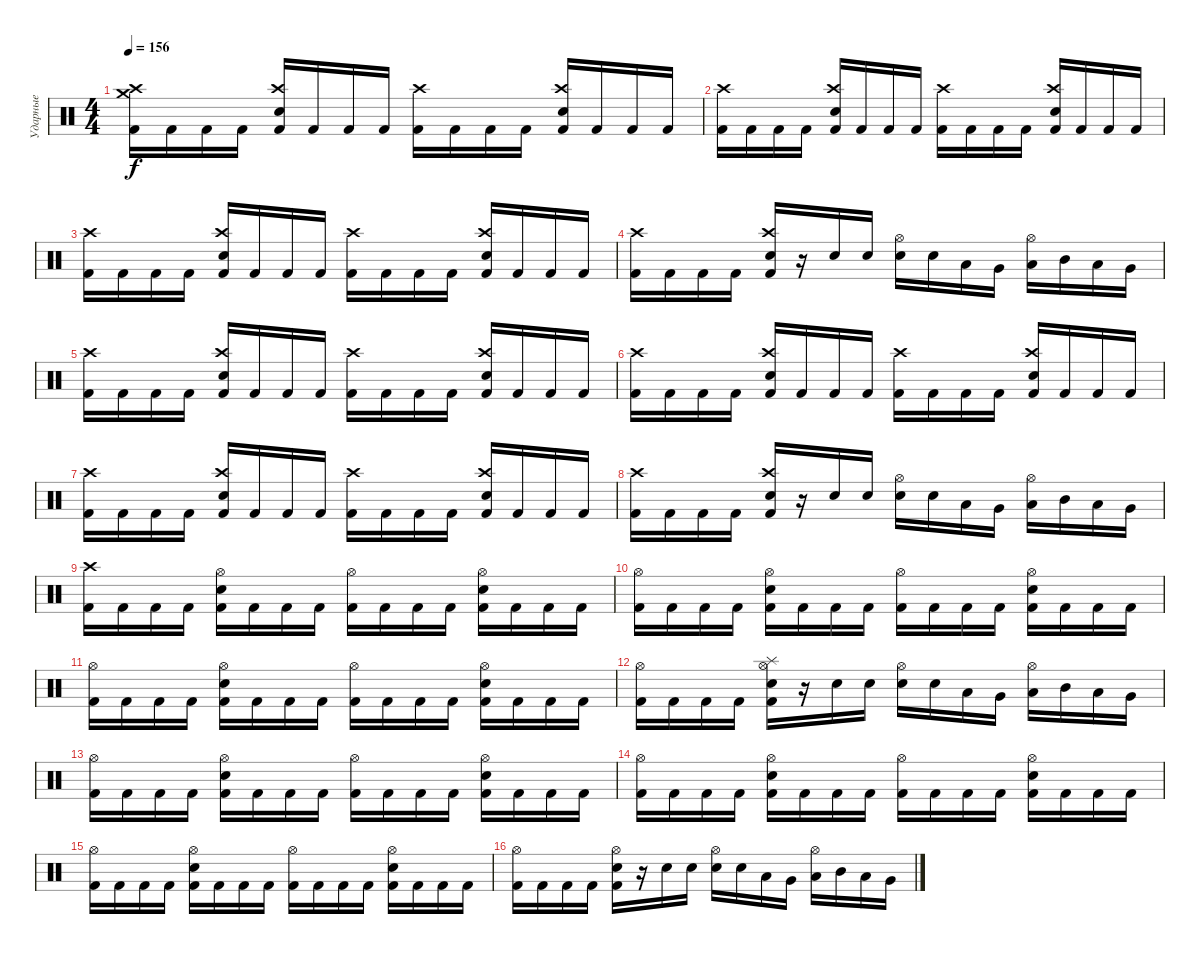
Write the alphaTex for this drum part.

\track ("Ударные" "Ударные") {instrument percussion}
\staff {score}
\articulation defaults
\ts (4 4)
\tempo 156
\clef neutral
\ks c
("Kick (hit) 2" "Crash medium (hit)" "Crash high (hit)").16{dy f} "Kick (hit) 2".16 "Kick (hit) 2".16 "Kick (hit) 2".16 ("Kick (hit) 2" "Electric Snare (hit)" "Crash high (hit)").16 "Kick (hit) 2".16 "Kick (hit) 2".16 "Kick (hit) 2".16 ("Kick (hit) 2" "Crash high (hit)").16 "Kick (hit) 2".16 "Kick (hit) 2".16 "Kick (hit) 2".16 ("Kick (hit) 2" "Snare (hit) 2" "Crash high (hit)").16 "Kick (hit) 2".16 "Kick (hit) 2".16 "Kick (hit) 2".16 |
("Kick (hit) 2" "Crash high (hit)").16 "Kick (hit) 2".16 "Kick (hit) 2".16 "Kick (hit) 2".16 ("Kick (hit) 2" "Electric Snare (hit)" "Crash high (hit)").16 "Kick (hit) 2".16 "Kick (hit) 2".16 "Kick (hit) 2".16 ("Kick (hit) 2" "Crash high (hit)").16 "Kick (hit) 2".16 "Kick (hit) 2".16 "Kick (hit) 2".16 ("Kick (hit) 2" "Electric Snare (hit)" "Crash high (hit)").16 "Kick (hit) 2".16 "Kick (hit) 2".16 "Kick (hit) 2".16 |
("Kick (hit) 2" "Crash high (hit)").16 "Kick (hit) 2".16 "Kick (hit) 2".16 "Kick (hit) 2".16 ("Kick (hit) 2" "Electric Snare (hit)" "Crash high (hit)").16 "Kick (hit) 2".16 "Kick (hit) 2".16 "Kick (hit) 2".16 ("Kick (hit) 2" "Crash high (hit)").16 "Kick (hit) 2".16 "Kick (hit) 2".16 "Kick (hit) 2".16 ("Kick (hit) 2" "Electric Snare (hit)" "Crash high (hit)").16 "Kick (hit) 2".16 "Kick (hit) 2".16 "Kick (hit) 2".16 |
("Kick (hit) 2" "Crash high (hit)").16 "Kick (hit) 2".16 "Kick (hit) 2".16 "Kick (hit) 2".16 ("Kick (hit) 2" "Electric Snare (hit)" "Crash high (hit)").16 r.16 "Snare (hit) 2".16 "Electric Snare (hit)".16 ("Snare (hit) 2" "Hi-Hat (open)").16 "Electric Snare (hit)".16 "Low Tom (hit)".16 "Very Low Tom (hit)".16 ("Low Tom (hit)" "Hi-Hat (open)").16 "Mid Tom (hit)".16 "Low Tom (hit)".16 "Very Low Tom (hit)".16 |
("Kick (hit) 2" "Crash high (hit)").16 "Kick (hit) 2".16 "Kick (hit) 2".16 "Kick (hit) 2".16 ("Kick (hit) 2" "Electric Snare (hit)" "Crash high (hit)").16 "Kick (hit) 2".16 "Kick (hit) 2".16 "Kick (hit) 2".16 ("Kick (hit) 2" "Crash high (hit)").16 "Kick (hit) 2".16 "Kick (hit) 2".16 "Kick (hit) 2".16 ("Kick (hit) 2" "Snare (hit) 2" "Crash high (hit)").16 "Kick (hit) 2".16 "Kick (hit) 2".16 "Kick (hit) 2".16 |
("Kick (hit) 2" "Crash high (hit)").16 "Kick (hit) 2".16 "Kick (hit) 2".16 "Kick (hit) 2".16 ("Kick (hit) 2" "Electric Snare (hit)" "Crash high (hit)").16 "Kick (hit) 2".16 "Kick (hit) 2".16 "Kick (hit) 2".16 ("Kick (hit) 2" "Crash high (hit)").16 "Kick (hit) 2".16 "Kick (hit) 2".16 "Kick (hit) 2".16 ("Kick (hit) 2" "Electric Snare (hit)" "Crash high (hit)").16 "Kick (hit) 2".16 "Kick (hit) 2".16 "Kick (hit) 2".16 |
("Kick (hit) 2" "Crash high (hit)").16 "Kick (hit) 2".16 "Kick (hit) 2".16 "Kick (hit) 2".16 ("Kick (hit) 2" "Electric Snare (hit)" "Crash high (hit)").16 "Kick (hit) 2".16 "Kick (hit) 2".16 "Kick (hit) 2".16 ("Kick (hit) 2" "Crash high (hit)").16 "Kick (hit) 2".16 "Kick (hit) 2".16 "Kick (hit) 2".16 ("Kick (hit) 2" "Electric Snare (hit)" "Crash high (hit)").16 "Kick (hit) 2".16 "Kick (hit) 2".16 "Kick (hit) 2".16 |
("Kick (hit) 2" "Crash high (hit)").16 "Kick (hit) 2".16 "Kick (hit) 2".16 "Kick (hit) 2".16 ("Kick (hit) 2" "Electric Snare (hit)" "Crash high (hit)").16 r.16 "Snare (hit) 2".16 "Electric Snare (hit)".16 ("Snare (hit) 2" "Hi-Hat (open)").16 "Electric Snare (hit)".16 "Low Tom (hit)".16 "Very Low Tom (hit)".16 ("Low Tom (hit)" "Hi-Hat (open)").16 "Mid Tom (hit)".16 "Low Tom (hit)".16 "Very Low Tom (hit)".16 |
("Kick (hit) 2" "Crash high (hit)").16 "Kick (hit) 2".16 "Kick (hit) 2".16 "Kick (hit) 2".16 ("Kick (hit) 2" "Electric Snare (hit)" "Hi-Hat (open)").16 "Kick (hit) 2".16 "Kick (hit) 2".16 "Kick (hit) 2".16 ("Kick (hit) 2" "Hi-Hat (open)").16 "Kick (hit) 2".16 "Kick (hit) 2".16 "Kick (hit) 2".16 ("Kick (hit) 2" "Snare (hit) 2" "Hi-Hat (open)").16 "Kick (hit) 2".16 "Kick (hit) 2".16 "Kick (hit) 2".16 |
("Kick (hit) 2" "Hi-Hat (open)").16 "Kick (hit) 2".16 "Kick (hit) 2".16 "Kick (hit) 2".16 ("Kick (hit) 2" "Electric Snare (hit)" "Hi-Hat (open)").16 "Kick (hit) 2".16 "Kick (hit) 2".16 "Kick (hit) 2".16 ("Kick (hit) 2" "Hi-Hat (open)").16 "Kick (hit) 2".16 "Kick (hit) 2".16 "Kick (hit) 2".16 ("Kick (hit) 2" "Electric Snare (hit)" "Hi-Hat (open)").16 "Kick (hit) 2".16 "Kick (hit) 2".16 "Kick (hit) 2".16 |
("Kick (hit) 2" "Hi-Hat (open)").16 "Kick (hit) 2".16 "Kick (hit) 2".16 "Kick (hit) 2".16 ("Kick (hit) 2" "Electric Snare (hit)" "Hi-Hat (open)").16 "Kick (hit) 2".16 "Kick (hit) 2".16 "Kick (hit) 2".16 ("Kick (hit) 2" "Hi-Hat (open)").16 "Kick (hit) 2".16 "Kick (hit) 2".16 "Kick (hit) 2".16 ("Kick (hit) 2" "Electric Snare (hit)" "Hi-Hat (open)").16 "Kick (hit) 2".16 "Kick (hit) 2".16 "Kick (hit) 2".16 |
("Kick (hit) 2" "Hi-Hat (open)").16 "Kick (hit) 2".16 "Kick (hit) 2".16 "Kick (hit) 2".16 ("Kick (hit) 2" "Electric Snare (hit)" "Splash (hit)" "Hi-Hat (open)").16 r.16 "Snare (hit) 2".16 "Electric Snare (hit)".16 ("Snare (hit) 2" "Hi-Hat (open)").16 "Electric Snare (hit)".16 "Low Tom (hit)".16 "Very Low Tom (hit)".16 ("Low Tom (hit)" "Hi-Hat (open)").16 "Mid Tom (hit)".16 "Low Tom (hit)".16 "Very Low Tom (hit)".16 |
("Kick (hit) 2" "Hi-Hat (open)").16 "Kick (hit) 2".16 "Kick (hit) 2".16 "Kick (hit) 2".16 ("Kick (hit) 2" "Electric Snare (hit)" "Hi-Hat (open)").16 "Kick (hit) 2".16 "Kick (hit) 2".16 "Kick (hit) 2".16 ("Kick (hit) 2" "Hi-Hat (open)").16 "Kick (hit) 2".16 "Kick (hit) 2".16 "Kick (hit) 2".16 ("Kick (hit) 2" "Snare (hit) 2" "Hi-Hat (open)").16 "Kick (hit) 2".16 "Kick (hit) 2".16 "Kick (hit) 2".16 |
("Kick (hit) 2" "Hi-Hat (open)").16 "Kick (hit) 2".16 "Kick (hit) 2".16 "Kick (hit) 2".16 ("Kick (hit) 2" "Electric Snare (hit)" "Hi-Hat (open)").16 "Kick (hit) 2".16 "Kick (hit) 2".16 "Kick (hit) 2".16 ("Kick (hit) 2" "Hi-Hat (open)").16 "Kick (hit) 2".16 "Kick (hit) 2".16 "Kick (hit) 2".16 ("Kick (hit) 2" "Electric Snare (hit)" "Hi-Hat (open)").16 "Kick (hit) 2".16 "Kick (hit) 2".16 "Kick (hit) 2".16 |
("Kick (hit) 2" "Hi-Hat (open)").16 "Kick (hit) 2".16 "Kick (hit) 2".16 "Kick (hit) 2".16 ("Kick (hit) 2" "Electric Snare (hit)" "Hi-Hat (open)").16 "Kick (hit) 2".16 "Kick (hit) 2".16 "Kick (hit) 2".16 ("Kick (hit) 2" "Hi-Hat (open)").16 "Kick (hit) 2".16 "Kick (hit) 2".16 "Kick (hit) 2".16 ("Kick (hit) 2" "Electric Snare (hit)" "Hi-Hat (open)").16 "Kick (hit) 2".16 "Kick (hit) 2".16 "Kick (hit) 2".16 |
("Kick (hit) 2" "Hi-Hat (open)").16 "Kick (hit) 2".16 "Kick (hit) 2".16 "Kick (hit) 2".16 ("Kick (hit) 2" "Electric Snare (hit)" "Hi-Hat (open)").16 r.16 "Snare (hit) 2".16 "Electric Snare (hit)".16 ("Snare (hit) 2" "Hi-Hat (open)").16 "Electric Snare (hit)".16 "Low Tom (hit)".16 "Very Low Tom (hit)".16 ("Low Tom (hit)" "Hi-Hat (open)").16 "Mid Tom (hit)".16 "Low Tom (hit)".16 "Very Low Tom (hit)".16
